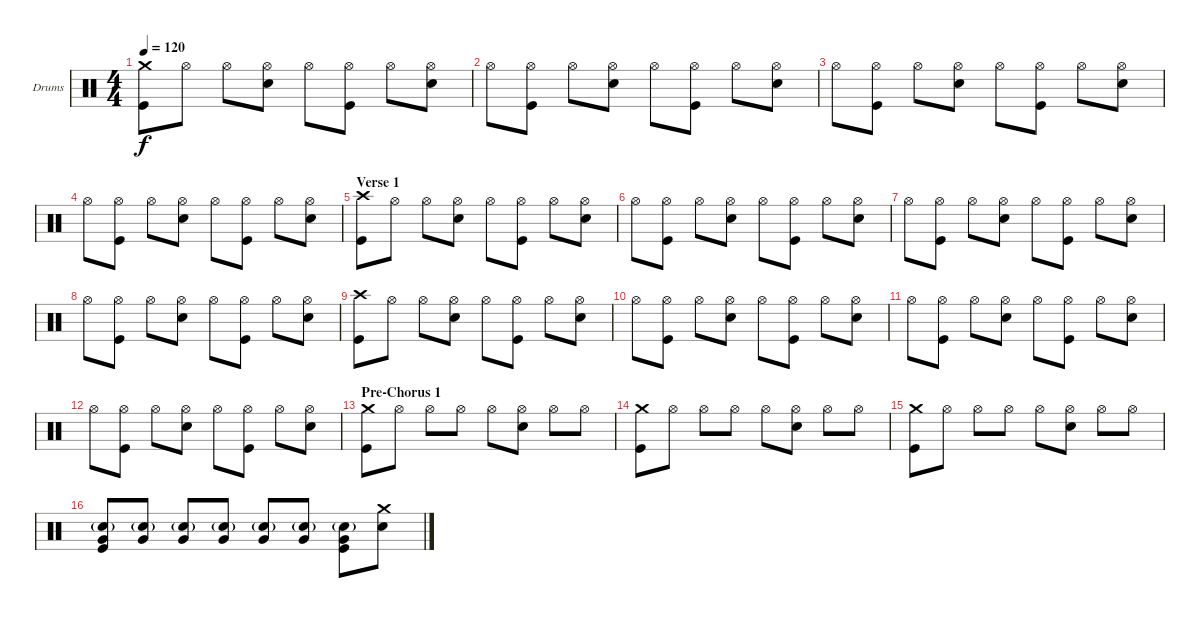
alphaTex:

\bracketExtendMode groupsimilarinstruments
\firstSystemTrackNameOrientation horizontal
\otherSystemsTrackNameOrientation horizontal
\track ("Drumkit" "Drums") {instrument percussion}
\staff {score}
\articulation defaults
\ts (4 4)
\tempo 120
\clef neutral
\ks c
("Crash medium (hit)" "Kick (hit)").8{dy f} "Hi-Hat (open)".8 "Hi-Hat (open)".8 ("Hi-Hat (open)" "Snare (hit) 2").8 "Hi-Hat (open)".8 ("Hi-Hat (open)" "Kick (hit)").8 "Hi-Hat (open)".8 ("Hi-Hat (open)" "Snare (hit) 2").8 |
"Hi-Hat (open)".8 ("Hi-Hat (open)" "Kick (hit)").8 "Hi-Hat (open)".8 ("Hi-Hat (open)" "Snare (hit) 2").8 "Hi-Hat (open)".8 ("Hi-Hat (open)" "Kick (hit)").8 "Hi-Hat (open)".8 ("Hi-Hat (open)" "Snare (hit) 2").8 |
"Hi-Hat (open)".8 ("Hi-Hat (open)" "Kick (hit)").8 "Hi-Hat (open)".8 ("Hi-Hat (open)" "Snare (hit) 2").8 "Hi-Hat (open)".8 ("Hi-Hat (open)" "Kick (hit)").8 "Hi-Hat (open)".8 ("Hi-Hat (open)" "Snare (hit) 2").8 |
"Hi-Hat (open)".8 ("Hi-Hat (open)" "Kick (hit)").8 "Hi-Hat (open)".8 ("Hi-Hat (open)" "Snare (hit) 2").8 "Hi-Hat (open)".8 ("Hi-Hat (open)" "Kick (hit)").8 "Hi-Hat (open)".8 ("Hi-Hat (open)" "Snare (hit) 2").8 |
\section ("" "Verse 1")
("Crash high (hit)" "Kick (hit)").8 "Hi-Hat (open)".8 "Hi-Hat (open)".8 ("Hi-Hat (open)" "Snare (hit) 2").8 "Hi-Hat (open)".8 ("Hi-Hat (open)" "Kick (hit)").8 "Hi-Hat (open)".8 ("Hi-Hat (open)" "Snare (hit) 2").8 |
"Hi-Hat (open)".8 ("Hi-Hat (open)" "Kick (hit)").8 "Hi-Hat (open)".8 ("Hi-Hat (open)" "Snare (hit) 2").8 "Hi-Hat (open)".8 ("Hi-Hat (open)" "Kick (hit)").8 "Hi-Hat (open)".8 ("Hi-Hat (open)" "Snare (hit) 2").8 |
"Hi-Hat (open)".8 ("Hi-Hat (open)" "Kick (hit)").8 "Hi-Hat (open)".8 ("Hi-Hat (open)" "Snare (hit) 2").8 "Hi-Hat (open)".8 ("Hi-Hat (open)" "Kick (hit)").8 "Hi-Hat (open)".8 ("Hi-Hat (open)" "Snare (hit) 2").8 |
"Hi-Hat (open)".8 ("Hi-Hat (open)" "Kick (hit)").8 "Hi-Hat (open)".8 ("Hi-Hat (open)" "Snare (hit) 2").8 "Hi-Hat (open)".8 ("Hi-Hat (open)" "Kick (hit)").8 "Hi-Hat (open)".8 ("Hi-Hat (open)" "Snare (hit) 2").8 |
("Crash high (hit)" "Kick (hit)").8 "Hi-Hat (open)".8 "Hi-Hat (open)".8 ("Hi-Hat (open)" "Snare (hit) 2").8 "Hi-Hat (open)".8 ("Hi-Hat (open)" "Kick (hit)").8 "Hi-Hat (open)".8 ("Hi-Hat (open)" "Snare (hit) 2").8 |
"Hi-Hat (open)".8 ("Hi-Hat (open)" "Kick (hit)").8 "Hi-Hat (open)".8 ("Hi-Hat (open)" "Snare (hit) 2").8 "Hi-Hat (open)".8 ("Hi-Hat (open)" "Kick (hit)").8 "Hi-Hat (open)".8 ("Hi-Hat (open)" "Snare (hit) 2").8 |
"Hi-Hat (open)".8 ("Hi-Hat (open)" "Kick (hit)").8 "Hi-Hat (open)".8 ("Hi-Hat (open)" "Snare (hit) 2").8 "Hi-Hat (open)".8 ("Hi-Hat (open)" "Kick (hit)").8 "Hi-Hat (open)".8 ("Hi-Hat (open)" "Snare (hit) 2").8 |
"Hi-Hat (open)".8 ("Hi-Hat (open)" "Kick (hit)").8 "Hi-Hat (open)".8 ("Hi-Hat (open)" "Snare (hit) 2").8 "Hi-Hat (open)".8 ("Hi-Hat (open)" "Kick (hit)").8 "Hi-Hat (open)".8 ("Hi-Hat (open)" "Snare (hit) 2").8 |
\section ("" "Pre-Chorus 1")
("Crash medium (hit)" "Kick (hit)").8 "Hi-Hat (open)".8 "Hi-Hat (open)".8 "Hi-Hat (open)".8 "Hi-Hat (open)".8 ("Hi-Hat (open)" "Snare (hit) 2").8 "Hi-Hat (open)".8 "Hi-Hat (open)".8 |
("Crash medium (hit)" "Kick (hit)").8 "Hi-Hat (open)".8 "Hi-Hat (open)".8 "Hi-Hat (open)".8 "Hi-Hat (open)".8 ("Hi-Hat (open)" "Snare (hit) 2").8 "Hi-Hat (open)".8 "Hi-Hat (open)".8 |
("Crash medium (hit)" "Kick (hit)").8 "Hi-Hat (open)".8 "Hi-Hat (open)".8 "Hi-Hat (open)".8 "Hi-Hat (open)".8 ("Hi-Hat (open)" "Snare (hit) 2").8 "Hi-Hat (open)".8 "Hi-Hat (open)".8 |
("Snare (hit) 2"{g} "Very Low Tom (hit)" "Kick (hit)").8 ("Snare (hit) 2"{g} "Very Low Tom (hit)").8 ("Snare (hit) 2"{g} "Very Low Tom (hit)").8 ("Snare (hit) 2"{g} "Very Low Tom (hit)").8 ("Snare (hit) 2"{g} "Very Low Tom (hit)").8 ("Snare (hit) 2"{g} "Very Low Tom (hit)").8 ("Snare (hit) 2"{g} "Very Low Tom (hit)" "Kick (hit)").8 ("Crash medium (hit)" "Snare (hit) 2").8
